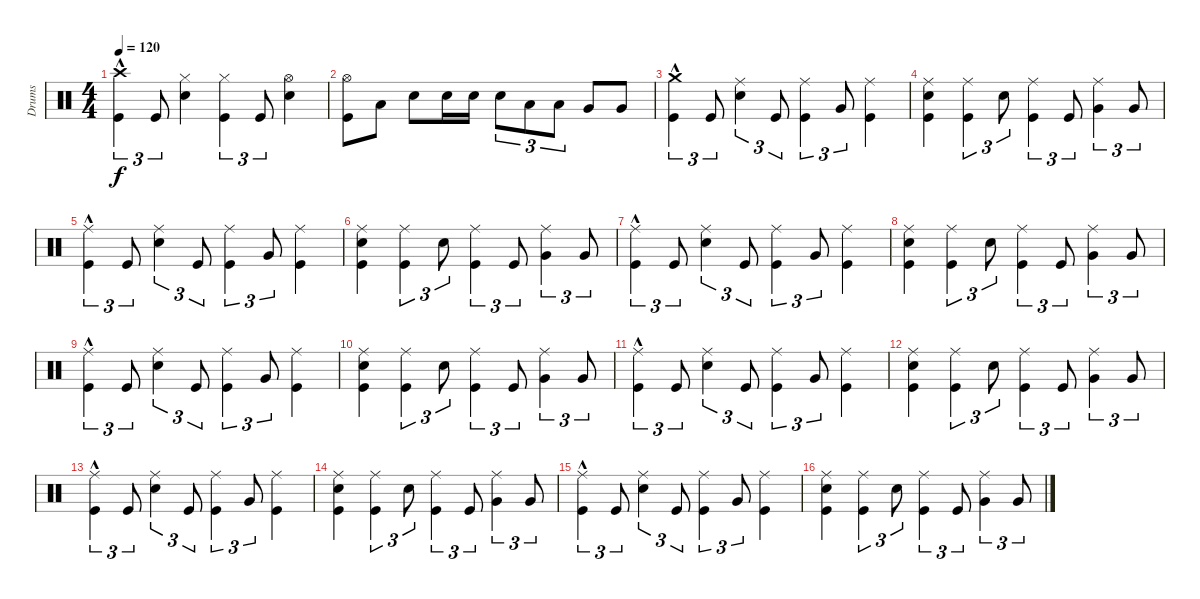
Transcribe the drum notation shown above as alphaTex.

\track ("Drums" "Drums") {instrument percussion}
\staff {score}
\articulation defaults
\ts (4 4)
\tempo 120
\clef neutral
\ks c
("Kick (hit)"{hac} "Crash high (hit)").4{tu (3 2) dy f} "Kick (hit)".8{tu (3 2)} ("Snare (hit) 2" "Hi-Hat (closed)").4 ("Kick (hit)" "Hi-Hat (closed)").4{tu (3 2)} "Kick (hit)".8{tu (3 2)} ("Snare (hit) 2" "Hi-Hat (open)").4 |
("Kick (hit)" "Hi-Hat (open)").8 "Low Tom (hit)".8 "Snare (hit) 2".8 "Snare (hit) 2".16 "Snare (hit) 2".16 "Snare (hit) 2".8{tu (3 2)} "Low Tom (hit)".8{tu (3 2)} "Low Tom (hit)".8{tu (3 2)} "Very Low Tom (hit)".8 "Very Low Tom (hit)".8 |
("Kick (hit)"{hac} "Crash medium (hit)").4{tu (3 2)} "Kick (hit)".8{tu (3 2)} ("Snare (hit) 2" "Ride (middle)").4{tu (3 2)} "Kick (hit)".8{tu (3 2)} ("Kick (hit)" "Ride (middle)").4{tu (3 2)} "Very Low Tom (hit)".8{tu (3 2)} ("Kick (hit)" "Ride (middle)").4 |
("Kick (hit)" "Snare (hit) 2" "Ride (middle)").4 ("Kick (hit)" "Ride (middle)").4{tu (3 2)} "Snare (hit) 2".8{tu (3 2)} ("Kick (hit)" "Ride (middle)").4{tu (3 2)} "Kick (hit)".8{tu (3 2)} ("Very Low Tom (hit)" "Ride (middle)").4{tu (3 2)} "Very Low Tom (hit)".8{tu (3 2)} |
("Kick (hit)"{hac} "Ride (middle)").4{tu (3 2)} "Kick (hit)".8{tu (3 2)} ("Snare (hit) 2" "Ride (middle)").4{tu (3 2)} "Kick (hit)".8{tu (3 2)} ("Kick (hit)" "Ride (middle)").4{tu (3 2)} "Very Low Tom (hit)".8{tu (3 2)} ("Kick (hit)" "Ride (middle)").4 |
("Kick (hit)" "Snare (hit) 2" "Ride (middle)").4 ("Kick (hit)" "Ride (middle)").4{tu (3 2)} "Snare (hit) 2".8{tu (3 2)} ("Kick (hit)" "Ride (middle)").4{tu (3 2)} "Kick (hit)".8{tu (3 2)} ("Very Low Tom (hit)" "Ride (middle)").4{tu (3 2)} "Very Low Tom (hit)".8{tu (3 2)} |
("Kick (hit)"{hac} "Ride (middle)").4{tu (3 2)} "Kick (hit)".8{tu (3 2)} ("Snare (hit) 2" "Ride (middle)").4{tu (3 2)} "Kick (hit)".8{tu (3 2)} ("Kick (hit)" "Ride (middle)").4{tu (3 2)} "Very Low Tom (hit)".8{tu (3 2)} ("Kick (hit)" "Ride (middle)").4 |
("Kick (hit)" "Snare (hit) 2" "Ride (middle)").4 ("Kick (hit)" "Ride (middle)").4{tu (3 2)} "Snare (hit) 2".8{tu (3 2)} ("Kick (hit)" "Ride (middle)").4{tu (3 2)} "Kick (hit)".8{tu (3 2)} ("Very Low Tom (hit)" "Ride (middle)").4{tu (3 2)} "Very Low Tom (hit)".8{tu (3 2)} |
("Kick (hit)"{hac} "Ride (middle)").4{tu (3 2)} "Kick (hit)".8{tu (3 2)} ("Snare (hit) 2" "Ride (middle)").4{tu (3 2)} "Kick (hit)".8{tu (3 2)} ("Kick (hit)" "Ride (middle)").4{tu (3 2)} "Very Low Tom (hit)".8{tu (3 2)} ("Kick (hit)" "Ride (middle)").4 |
("Kick (hit)" "Snare (hit) 2" "Ride (middle)").4 ("Kick (hit)" "Ride (middle)").4{tu (3 2)} "Snare (hit) 2".8{tu (3 2)} ("Kick (hit)" "Ride (middle)").4{tu (3 2)} "Kick (hit)".8{tu (3 2)} ("Very Low Tom (hit)" "Ride (middle)").4{tu (3 2)} "Very Low Tom (hit)".8{tu (3 2)} |
("Kick (hit)"{hac} "Ride (middle)").4{tu (3 2)} "Kick (hit)".8{tu (3 2)} ("Snare (hit) 2" "Ride (middle)").4{tu (3 2)} "Kick (hit)".8{tu (3 2)} ("Kick (hit)" "Ride (middle)").4{tu (3 2)} "Very Low Tom (hit)".8{tu (3 2)} ("Kick (hit)" "Ride (middle)").4 |
("Kick (hit)" "Snare (hit) 2" "Ride (middle)").4 ("Kick (hit)" "Ride (middle)").4{tu (3 2)} "Snare (hit) 2".8{tu (3 2)} ("Kick (hit)" "Ride (middle)").4{tu (3 2)} "Kick (hit)".8{tu (3 2)} ("Very Low Tom (hit)" "Ride (middle)").4{tu (3 2)} "Very Low Tom (hit)".8{tu (3 2)} |
("Kick (hit)"{hac} "Ride (middle)").4{tu (3 2)} "Kick (hit)".8{tu (3 2)} ("Snare (hit) 2" "Ride (middle)").4{tu (3 2)} "Kick (hit)".8{tu (3 2)} ("Kick (hit)" "Ride (middle)").4{tu (3 2)} "Very Low Tom (hit)".8{tu (3 2)} ("Kick (hit)" "Ride (middle)").4 |
("Kick (hit)" "Snare (hit) 2" "Ride (middle)").4 ("Kick (hit)" "Ride (middle)").4{tu (3 2)} "Snare (hit) 2".8{tu (3 2)} ("Kick (hit)" "Ride (middle)").4{tu (3 2)} "Kick (hit)".8{tu (3 2)} ("Very Low Tom (hit)" "Ride (middle)").4{tu (3 2)} "Very Low Tom (hit)".8{tu (3 2)} |
("Kick (hit)"{hac} "Ride (middle)").4{tu (3 2)} "Kick (hit)".8{tu (3 2)} ("Snare (hit) 2" "Ride (middle)").4{tu (3 2)} "Kick (hit)".8{tu (3 2)} ("Kick (hit)" "Ride (middle)").4{tu (3 2)} "Very Low Tom (hit)".8{tu (3 2)} ("Kick (hit)" "Ride (middle)").4 |
("Kick (hit)" "Snare (hit) 2" "Ride (middle)").4 ("Kick (hit)" "Ride (middle)").4{tu (3 2)} "Snare (hit) 2".8{tu (3 2)} ("Kick (hit)" "Ride (middle)").4{tu (3 2)} "Kick (hit)".8{tu (3 2)} ("Very Low Tom (hit)" "Ride (middle)").4{tu (3 2)} "Very Low Tom (hit)".8{tu (3 2)}
